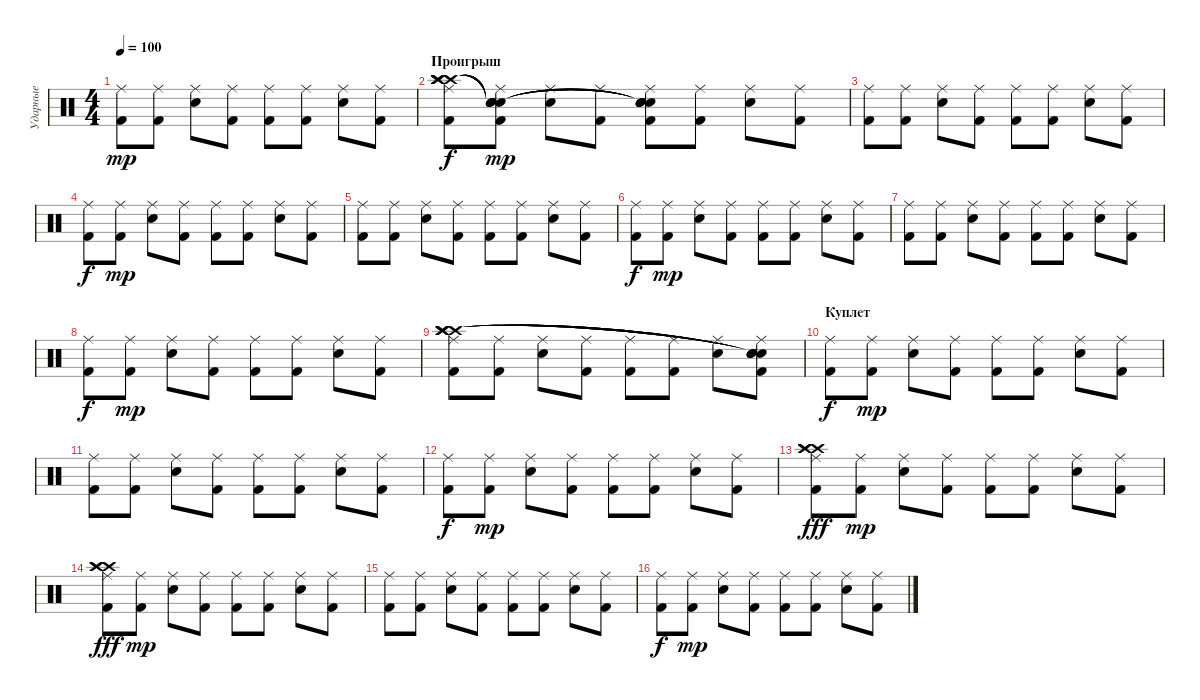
\track ("Ударные" "Ударные") {instrument percussion}
\staff {score}
\articulation defaults
\ts (4 4)
\tempo 100
\clef neutral
\ks c
("Kick (hit) 2" "Ride (middle)").8{dy mp} ("Kick (hit) 2" "Ride (middle)").8 ("Electric Snare (hit)" "Ride (middle)").8 ("Kick (hit) 2" "Ride (middle)").8 ("Kick (hit) 2" "Ride (middle)").8 ("Kick (hit) 2" "Ride (middle)").8 ("Electric Snare (hit)" "Ride (middle)").8 ("Kick (hit) 2" "Ride (middle)").8 |
\section ("" "Проигрыш")
("Kick (hit) 2" "Ride (middle)" "Crash high (hit)" "Crash high (hit)" "Crash high (hit)" "Crash high (hit)").8{dy f} ("Kick (hit) 2" "Ride (middle)" "Snare (hit)"{t} "Snare (hit)"{t} "Snare (hit)"{t} "Snare (hit)"{t}).8{dy mp} ("Electric Snare (hit)" "Ride (middle)").8 ("Kick (hit) 2" "Ride (middle)").8 ("Kick (hit) 2" "Ride (middle)" "Snare (hit)"{t} "Snare (hit)"{t} "Snare (hit)"{t} "Snare (hit)"{t}).8 ("Kick (hit) 2" "Ride (middle)").8 ("Electric Snare (hit)" "Ride (middle)").8 ("Kick (hit) 2" "Ride (middle)").8 |
("Kick (hit) 2" "Ride (middle)").8 ("Kick (hit) 2" "Ride (middle)").8 ("Electric Snare (hit)" "Ride (middle)").8 ("Kick (hit) 2" "Ride (middle)").8 ("Kick (hit) 2" "Ride (middle)").8 ("Kick (hit) 2" "Ride (middle)").8 ("Electric Snare (hit)" "Ride (middle)").8 ("Kick (hit) 2" "Ride (middle)").8 |
("Kick (hit) 2" "Ride (middle)").8{dy f} ("Kick (hit) 2" "Ride (middle)").8{dy mp} ("Electric Snare (hit)" "Ride (middle)").8 ("Kick (hit) 2" "Ride (middle)").8 ("Kick (hit) 2" "Ride (middle)").8 ("Kick (hit) 2" "Ride (middle)").8 ("Electric Snare (hit)" "Ride (middle)").8 ("Kick (hit) 2" "Ride (middle)").8 |
("Kick (hit) 2" "Ride (middle)").8 ("Kick (hit) 2" "Ride (middle)").8 ("Electric Snare (hit)" "Ride (middle)").8 ("Kick (hit) 2" "Ride (middle)").8 ("Kick (hit) 2" "Ride (middle)").8 ("Kick (hit) 2" "Ride (middle)").8 ("Electric Snare (hit)" "Ride (middle)").8 ("Kick (hit) 2" "Ride (middle)").8 |
("Kick (hit) 2" "Ride (middle)").8{dy f} ("Kick (hit) 2" "Ride (middle)").8{dy mp} ("Electric Snare (hit)" "Ride (middle)").8 ("Kick (hit) 2" "Ride (middle)").8 ("Kick (hit) 2" "Ride (middle)").8 ("Kick (hit) 2" "Ride (middle)").8 ("Electric Snare (hit)" "Ride (middle)").8 ("Kick (hit) 2" "Ride (middle)").8 |
("Kick (hit) 2" "Ride (middle)").8 ("Kick (hit) 2" "Ride (middle)").8 ("Electric Snare (hit)" "Ride (middle)").8 ("Kick (hit) 2" "Ride (middle)").8 ("Kick (hit) 2" "Ride (middle)").8 ("Kick (hit) 2" "Ride (middle)").8 ("Electric Snare (hit)" "Ride (middle)").8 ("Kick (hit) 2" "Ride (middle)").8 |
("Kick (hit) 2" "Ride (middle)").8{dy f} ("Kick (hit) 2" "Ride (middle)").8{dy mp} ("Electric Snare (hit)" "Ride (middle)").8 ("Kick (hit) 2" "Ride (middle)").8 ("Kick (hit) 2" "Ride (middle)").8 ("Kick (hit) 2" "Ride (middle)").8 ("Electric Snare (hit)" "Ride (middle)").8 ("Kick (hit) 2" "Ride (middle)").8 |
("Kick (hit) 2" "Ride (middle)" "Crash high (hit)" "Crash high (hit)" "Crash high (hit)" "Crash high (hit)").8 ("Kick (hit) 2" "Ride (middle)").8 ("Electric Snare (hit)" "Ride (middle)").8 ("Kick (hit) 2" "Ride (middle)").8 ("Kick (hit) 2" "Ride (middle)").8 ("Kick (hit) 2" "Ride (middle)").8 ("Electric Snare (hit)" "Ride (middle)").8 ("Kick (hit) 2" "Ride (middle)" "Snare (hit)"{t} "Snare (hit)"{t} "Snare (hit)"{t} "Snare (hit)"{t}).8 |
\section ("" "Куплет")
("Kick (hit) 2" "Ride (middle)").8{dy f} ("Kick (hit) 2" "Ride (middle)").8{dy mp} ("Electric Snare (hit)" "Ride (middle)").8 ("Kick (hit) 2" "Ride (middle)").8 ("Kick (hit) 2" "Ride (middle)").8 ("Kick (hit) 2" "Ride (middle)").8 ("Electric Snare (hit)" "Ride (middle)").8 ("Kick (hit) 2" "Ride (middle)").8 |
("Kick (hit) 2" "Ride (middle)").8 ("Kick (hit) 2" "Ride (middle)").8 ("Electric Snare (hit)" "Ride (middle)").8 ("Kick (hit) 2" "Ride (middle)").8 ("Kick (hit) 2" "Ride (middle)").8 ("Kick (hit) 2" "Ride (middle)").8 ("Electric Snare (hit)" "Ride (middle)").8 ("Kick (hit) 2" "Ride (middle)").8 |
("Kick (hit) 2" "Ride (middle)").8{dy f} ("Kick (hit) 2" "Ride (middle)").8{dy mp} ("Electric Snare (hit)" "Ride (middle)").8 ("Kick (hit) 2" "Ride (middle)").8 ("Kick (hit) 2" "Ride (middle)").8 ("Kick (hit) 2" "Ride (middle)").8 ("Electric Snare (hit)" "Ride (middle)").8 ("Kick (hit) 2" "Ride (middle)").8 |
("Kick (hit) 2" "Ride (middle)" "Crash high (hit)" "Crash high (hit)" "Crash high (hit)").8{dy fff} ("Kick (hit) 2" "Ride (middle)").8{dy mp} ("Electric Snare (hit)" "Ride (middle)").8 ("Kick (hit) 2" "Ride (middle)").8 ("Kick (hit) 2" "Ride (middle)").8 ("Kick (hit) 2" "Ride (middle)").8 ("Electric Snare (hit)" "Ride (middle)").8 ("Kick (hit) 2" "Ride (middle)").8 |
("Kick (hit) 2" "Ride (middle)" "Crash high (hit)" "Crash high (hit)" "Crash high (hit)").8{dy fff} ("Kick (hit) 2" "Ride (middle)").8{dy mp} ("Electric Snare (hit)" "Ride (middle)").8 ("Kick (hit) 2" "Ride (middle)").8 ("Kick (hit) 2" "Ride (middle)").8 ("Kick (hit) 2" "Ride (middle)").8 ("Electric Snare (hit)" "Ride (middle)").8 ("Kick (hit) 2" "Ride (middle)").8 |
("Kick (hit) 2" "Ride (middle)").8 ("Kick (hit) 2" "Ride (middle)").8 ("Electric Snare (hit)" "Ride (middle)").8 ("Kick (hit) 2" "Ride (middle)").8 ("Kick (hit) 2" "Ride (middle)").8 ("Kick (hit) 2" "Ride (middle)").8 ("Electric Snare (hit)" "Ride (middle)").8 ("Kick (hit) 2" "Ride (middle)").8 |
("Kick (hit) 2" "Ride (middle)").8{dy f} ("Kick (hit) 2" "Ride (middle)").8{dy mp} ("Electric Snare (hit)" "Ride (middle)").8 ("Kick (hit) 2" "Ride (middle)").8 ("Kick (hit) 2" "Ride (middle)").8 ("Kick (hit) 2" "Ride (middle)").8 ("Electric Snare (hit)" "Ride (middle)").8 ("Kick (hit) 2" "Ride (middle)").8
